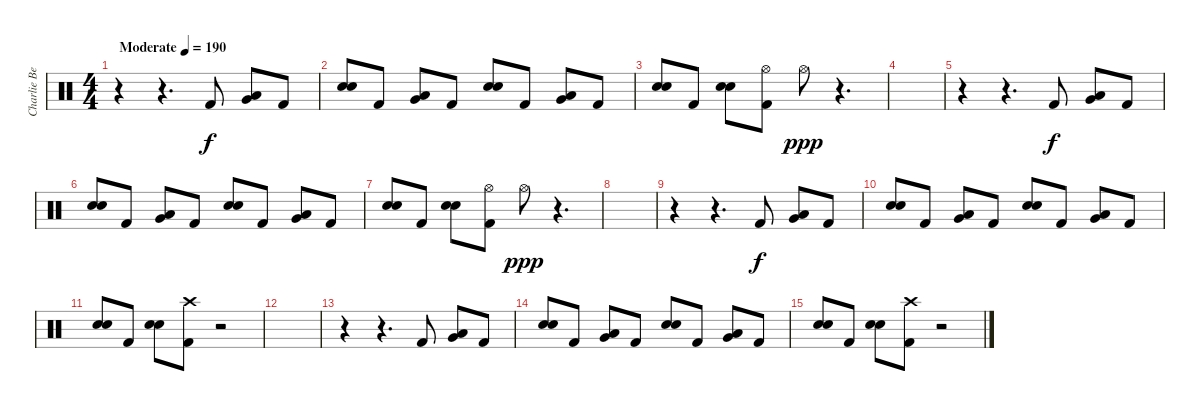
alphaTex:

\track ("Charlie Benante" "Charlie Be") {instrument percussion}
\staff {score}
\articulation defaults
\ts (4 4)
\tempo (190 "Moderate")
\clef neutral
\ks c
r.4{dy f} r.4{d} "Kick (hit) 2".8 ("Very Low Tom (hit)" "Low Floor Tom (hit)").8{bd 120} "Kick (hit) 2".8 |
("Snare (hit) 2" "Snare (hit) 2").8{bd 120} "Kick (hit) 2".8 ("Very Low Tom (hit)" "Low Floor Tom (hit)").8{bd 120} "Kick (hit) 2".8 ("Snare (hit) 2" "Snare (hit) 2").8{bd 120} "Kick (hit) 2".8 ("Very Low Tom (hit)" "Low Floor Tom (hit)").8{bd 120} "Kick (hit) 2".8 |
("Snare (hit) 2" "Snare (hit) 2").8{bd 120} "Kick (hit) 2".8 ("Snare (hit) 2" "Snare (hit) 2").8{bd 120} ("Kick (hit) 2" "Hi-Hat (open)").8 "Hi-Hat (open)".8{dy ppp} r.4{d} |
|
r.4 r.4{d} "Kick (hit) 2".8{dy f} ("Very Low Tom (hit)" "Low Floor Tom (hit)").8{bd 120} "Kick (hit) 2".8 |
("Snare (hit) 2" "Snare (hit) 2").8{bd 120} "Kick (hit) 2".8 ("Very Low Tom (hit)" "Low Floor Tom (hit)").8{bd 120} "Kick (hit) 2".8 ("Snare (hit) 2" "Snare (hit) 2").8{bd 120} "Kick (hit) 2".8 ("Very Low Tom (hit)" "Low Floor Tom (hit)").8{bd 120} "Kick (hit) 2".8 |
("Snare (hit) 2" "Snare (hit) 2").8{bd 120} "Kick (hit) 2".8 ("Snare (hit) 2" "Snare (hit) 2").8{bd 120} ("Kick (hit) 2" "Hi-Hat (open)").8 "Hi-Hat (open)".8{dy ppp} r.4{d} |
|
r.4 r.4{d} "Kick (hit) 2".8{dy f} ("Very Low Tom (hit)" "Low Floor Tom (hit)").8{bd 120} "Kick (hit) 2".8 |
("Snare (hit) 2" "Snare (hit) 2").8{bd 120} "Kick (hit) 2".8 ("Very Low Tom (hit)" "Low Floor Tom (hit)").8{bd 120} "Kick (hit) 2".8 ("Snare (hit) 2" "Snare (hit) 2").8{bd 120} "Kick (hit) 2".8 ("Very Low Tom (hit)" "Low Floor Tom (hit)").8{bd 120} "Kick (hit) 2".8 |
("Snare (hit) 2" "Snare (hit) 2").8{bd 120} "Kick (hit) 2".8 ("Snare (hit) 2" "Snare (hit) 2").8{bd 120} ("Kick (hit) 2" "Crash high (hit)").8 r.2 |
|
r.4 r.4{d} "Kick (hit) 2".8 ("Very Low Tom (hit)" "Low Floor Tom (hit)").8{bd 120} "Kick (hit) 2".8 |
("Snare (hit) 2" "Snare (hit) 2").8{bd 120} "Kick (hit) 2".8 ("Very Low Tom (hit)" "Low Floor Tom (hit)").8{bd 120} "Kick (hit) 2".8 ("Snare (hit) 2" "Snare (hit) 2").8{bd 120} "Kick (hit) 2".8 ("Very Low Tom (hit)" "Low Floor Tom (hit)").8{bd 120} "Kick (hit) 2".8 |
("Snare (hit) 2" "Snare (hit) 2").8{bd 120} "Kick (hit) 2".8 ("Snare (hit) 2" "Snare (hit) 2").8{bd 120} ("Kick (hit) 2" "Crash high (hit)").8 r.2
